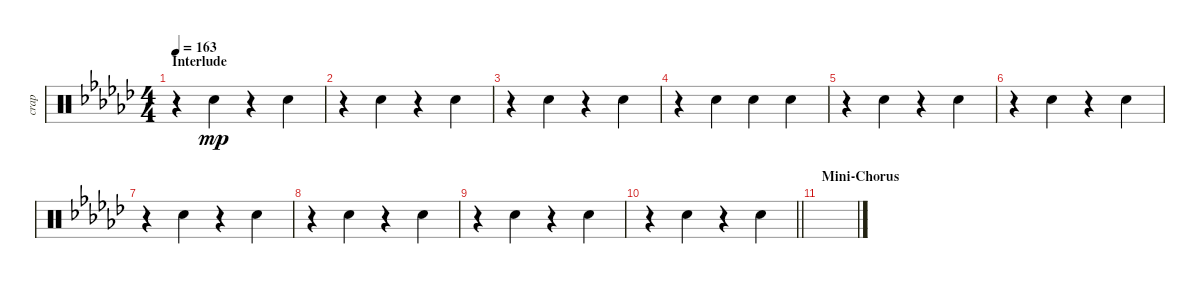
\track ("crap" "crap") {mute instrument percussion}
\staff {score}
\articulation defaults
\ts (4 4)
\section ("" "Interlude")
\tempo 163
\clef neutral
\ks gb
r.4{dy mp} "Hand Clap (hit)".4 r.4 "Hand Clap (hit)".4 |
r.4 "Hand Clap (hit)".4 r.4 "Hand Clap (hit)".4 |
r.4 "Hand Clap (hit)".4 r.4 "Hand Clap (hit)".4 |
r.4 "Hand Clap (hit)".4 "Hand Clap (hit)".4 "Hand Clap (hit)".4 |
r.4 "Hand Clap (hit)".4 r.4 "Hand Clap (hit)".4 |
r.4 "Hand Clap (hit)".4 r.4 "Hand Clap (hit)".4 |
r.4 "Hand Clap (hit)".4 r.4 "Hand Clap (hit)".4 |
r.4 "Hand Clap (hit)".4 r.4 "Hand Clap (hit)".4 |
r.4 "Hand Clap (hit)".4 r.4 "Hand Clap (hit)".4 |
\barLineRight lightlight
r.4 "Hand Clap (hit)".4 r.4 "Hand Clap (hit)".4 |
\section ("" "Mini-Chorus")
